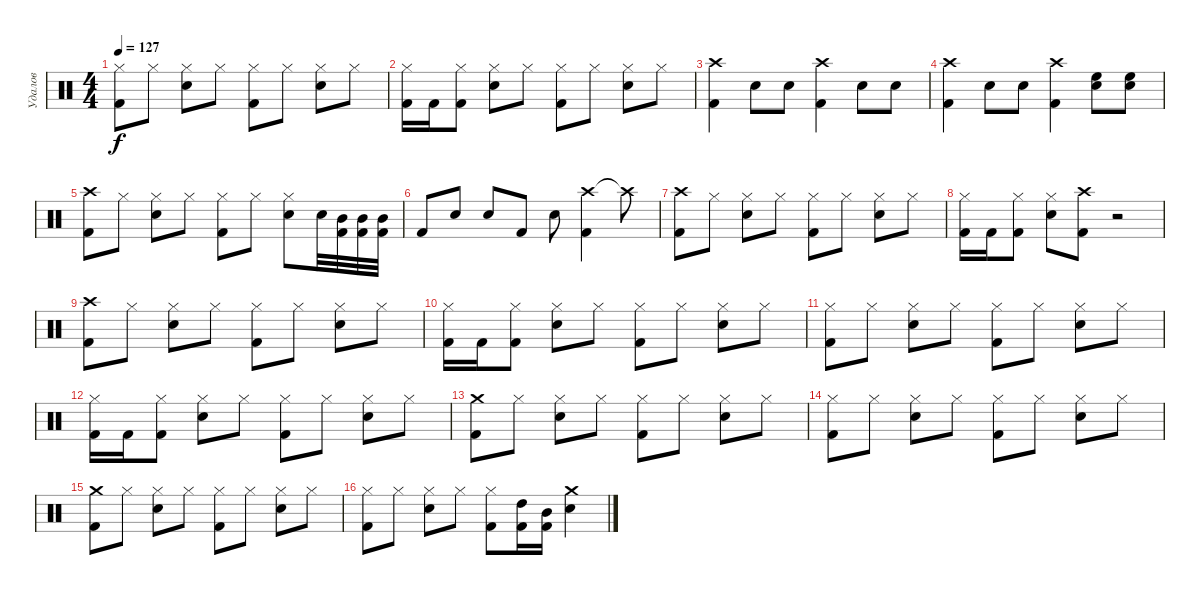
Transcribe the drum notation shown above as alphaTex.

\track ("Удалов" "Удалов") {instrument percussion}
\staff {score}
\articulation defaults
\ts (4 4)
\tempo 127
\clef neutral
\ks c
("Hi-Hat (closed)" "Kick (hit) 2").8{dy f} "Hi-Hat (closed)".8 ("Hi-Hat (closed)" "Snare (hit) 2").8 "Hi-Hat (closed)".8 ("Hi-Hat (closed)" "Kick (hit) 2").8 "Hi-Hat (closed)".8 ("Hi-Hat (closed)" "Snare (hit) 2").8 "Hi-Hat (closed)".8 |
("Hi-Hat (closed)" "Kick (hit) 2").16 "Kick (hit) 2".16 ("Hi-Hat (closed)" "Kick (hit) 2").8 ("Hi-Hat (closed)" "Snare (hit) 2").8 "Hi-Hat (closed)".8 ("Hi-Hat (closed)" "Kick (hit) 2").8 "Hi-Hat (closed)".8 ("Hi-Hat (closed)" "Snare (hit) 2").8 "Hi-Hat (closed)".8 |
("Crash high (hit)" "Kick (hit) 2").4 "Snare (hit) 2".8 "Snare (hit) 2".8 ("Crash high (hit)" "Kick (hit) 2").4 "Snare (hit) 2".8 "Snare (hit) 2".8 |
("Crash high (hit)" "Kick (hit) 2").4 "Snare (hit) 2".8 "Snare (hit) 2".8 ("Crash high (hit)" "Kick (hit) 2").4 ("Snare (hit) 2" "High Floor Tom (hit)").8 ("Snare (hit) 2" "High Floor Tom (hit)").8 |
("Crash high (hit)" "Kick (hit) 2").8 "Hi-Hat (closed)".8 ("Hi-Hat (closed)" "Snare (hit) 2").8 "Hi-Hat (closed)".8 ("Hi-Hat (closed)" "Kick (hit) 2").8 "Hi-Hat (closed)".8 ("Hi-Hat (closed)" "Snare (hit) 2").8 "Snare (hit) 2".32 ("Mid Tom (hit)" "Kick (hit) 2").32 ("Mid Tom (hit)" "Kick (hit) 2").32 ("Mid Tom (hit)" "Kick (hit) 2").32 |
"Kick (hit) 2".8 "Snare (hit) 2".8 "Snare (hit) 2".8 "Kick (hit) 2".8 "Snare (hit) 2".8 ("Crash high (hit)" "Kick (hit) 2").4 "Crash high (hit)"{t}.8 |
("Crash high (hit)" "Kick (hit) 2").8 "Hi-Hat (closed)".8 ("Hi-Hat (closed)" "Snare (hit) 2").8 "Hi-Hat (closed)".8 ("Hi-Hat (closed)" "Kick (hit) 2").8 "Hi-Hat (closed)".8 ("Hi-Hat (closed)" "Snare (hit) 2").8 "Hi-Hat (closed)".8 |
("Hi-Hat (closed)" "Kick (hit) 2").16 "Kick (hit) 2".16 ("Hi-Hat (closed)" "Kick (hit) 2").8 ("Hi-Hat (closed)" "Snare (hit) 2").8 ("Crash high (hit)" "Kick (hit) 2").8 r.2 |
("Crash high (hit)" "Kick (hit) 2").8 "Hi-Hat (closed)".8 ("Hi-Hat (closed)" "Snare (hit) 2").8 "Hi-Hat (closed)".8 ("Hi-Hat (closed)" "Kick (hit) 2").8 "Hi-Hat (closed)".8 ("Hi-Hat (closed)" "Snare (hit) 2").8 "Hi-Hat (closed)".8 |
("Hi-Hat (closed)" "Kick (hit) 2").16 "Kick (hit) 2".16 ("Hi-Hat (closed)" "Kick (hit) 2").8 ("Hi-Hat (closed)" "Snare (hit) 2").8 "Hi-Hat (closed)".8 ("Hi-Hat (closed)" "Kick (hit) 2").8 "Hi-Hat (closed)".8 ("Hi-Hat (closed)" "Snare (hit) 2").8 "Hi-Hat (closed)".8 |
("Hi-Hat (closed)" "Kick (hit) 2").8 "Hi-Hat (closed)".8 ("Hi-Hat (closed)" "Snare (hit) 2").8 "Hi-Hat (closed)".8 ("Hi-Hat (closed)" "Kick (hit) 2").8 "Hi-Hat (closed)".8 ("Hi-Hat (closed)" "Snare (hit) 2").8 "Hi-Hat (closed)".8 |
("Hi-Hat (closed)" "Kick (hit) 2").16 "Kick (hit) 2".16 ("Hi-Hat (closed)" "Kick (hit) 2").8 ("Hi-Hat (closed)" "Snare (hit) 2").8 "Hi-Hat (closed)".8 ("Hi-Hat (closed)" "Kick (hit) 2").8 "Hi-Hat (closed)".8 ("Hi-Hat (closed)" "Snare (hit) 2").8 "Hi-Hat (closed)".8 |
("Crash medium (hit)" "Kick (hit) 2").8 "Hi-Hat (closed)".8 ("Hi-Hat (closed)" "Snare (hit) 2").8 "Hi-Hat (closed)".8 ("Hi-Hat (closed)" "Kick (hit) 2").8 "Hi-Hat (closed)".8 ("Hi-Hat (closed)" "Snare (hit) 2").8 "Hi-Hat (closed)".8 |
("Hi-Hat (closed)" "Kick (hit) 2").8 "Hi-Hat (closed)".8 ("Hi-Hat (closed)" "Snare (hit) 2").8 "Hi-Hat (closed)".8 ("Hi-Hat (closed)" "Kick (hit) 2").8 "Hi-Hat (closed)".8 ("Hi-Hat (closed)" "Snare (hit) 2").8 "Hi-Hat (closed)".8 |
("Crash medium (hit)" "Kick (hit) 2").8 "Hi-Hat (closed)".8 ("Hi-Hat (closed)" "Snare (hit) 2").8 "Hi-Hat (closed)".8 ("Hi-Hat (closed)" "Kick (hit) 2").8 "Hi-Hat (closed)".8 ("Hi-Hat (closed)" "Snare (hit) 2").8 "Hi-Hat (closed)".8 |
("Hi-Hat (closed)" "Kick (hit) 2").8 "Hi-Hat (closed)".8 ("Hi-Hat (closed)" "Snare (hit) 2").8 "Hi-Hat (closed)".8 ("Hi-Hat (closed)" "Kick (hit) 2").8 ("High Tom (hit)" "Kick (hit) 2").16 ("Mid Tom (hit)" "Kick (hit) 2").16 ("Crash medium (hit)" "Electric Snare (hit)").4
